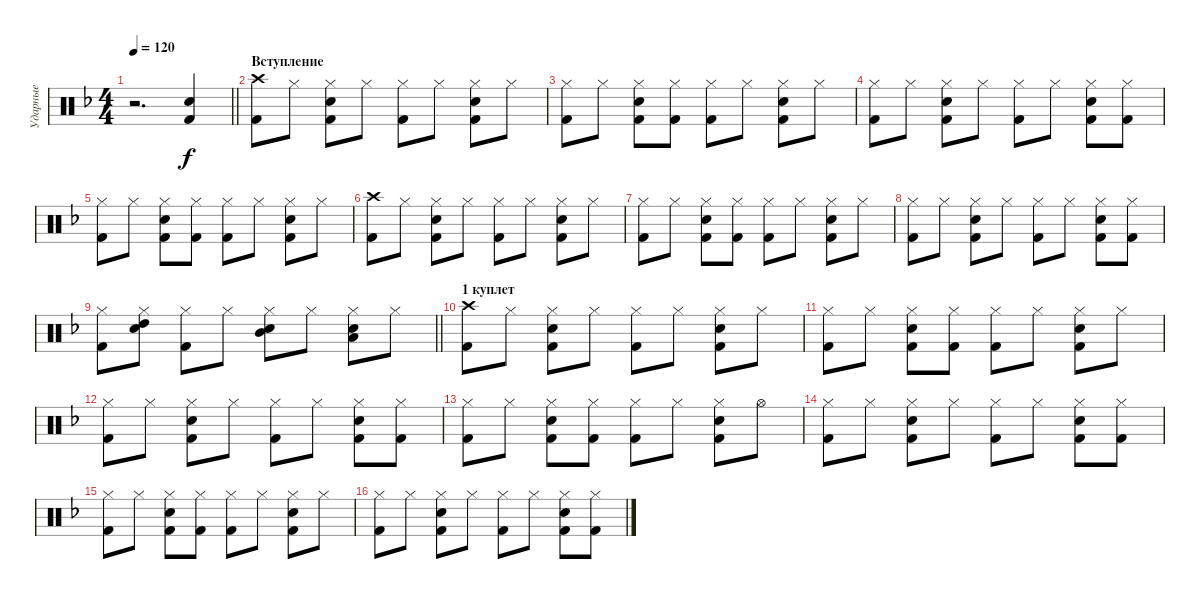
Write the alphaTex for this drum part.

\track ("Ударные" "Ударные") {instrument percussion}
\staff {score}
\articulation defaults
\ts (4 4)
\tempo 120
\clef neutral
\barLineRight lightlight
\ks f
r.2{d dy f} ("Kick (hit) 2" "Electric Snare (hit)").4 |
\section ("" "Вступление")
("Kick (hit) 2" "Crash high (hit)").8 "Hi-Hat (closed)".8 ("Kick (hit) 2" "Electric Snare (hit)" "Hi-Hat (closed)").8 "Hi-Hat (closed)".8 ("Kick (hit) 2" "Hi-Hat (closed)").8 "Hi-Hat (closed)".8 ("Kick (hit) 2" "Electric Snare (hit)" "Hi-Hat (closed)").8 "Hi-Hat (closed)".8 |
("Kick (hit) 2" "Hi-Hat (closed)").8 "Hi-Hat (closed)".8 ("Kick (hit) 2" "Electric Snare (hit)" "Hi-Hat (closed)").8 ("Kick (hit) 2" "Hi-Hat (closed)").8 ("Kick (hit) 2" "Hi-Hat (closed)").8 "Hi-Hat (closed)".8 ("Kick (hit) 2" "Electric Snare (hit)" "Hi-Hat (closed)").8 "Hi-Hat (closed)".8 |
("Kick (hit) 2" "Hi-Hat (closed)").8 "Hi-Hat (closed)".8 ("Kick (hit) 2" "Electric Snare (hit)" "Hi-Hat (closed)").8 "Hi-Hat (closed)".8 ("Kick (hit) 2" "Hi-Hat (closed)").8 "Hi-Hat (closed)".8 ("Kick (hit) 2" "Electric Snare (hit)" "Hi-Hat (closed)").8 ("Kick (hit) 2" "Hi-Hat (closed)").8 |
("Kick (hit) 2" "Hi-Hat (closed)").8 "Hi-Hat (closed)".8 ("Kick (hit) 2" "Electric Snare (hit)" "Hi-Hat (closed)").8 ("Kick (hit) 2" "Hi-Hat (closed)").8 ("Kick (hit) 2" "Hi-Hat (closed)").8 "Hi-Hat (closed)".8 ("Kick (hit) 2" "Electric Snare (hit)" "Hi-Hat (closed)").8 "Hi-Hat (closed)".8 |
("Kick (hit) 2" "Crash high (hit)").8 "Hi-Hat (closed)".8 ("Kick (hit) 2" "Electric Snare (hit)" "Hi-Hat (closed)").8 "Hi-Hat (closed)".8 ("Kick (hit) 2" "Hi-Hat (closed)").8 "Hi-Hat (closed)".8 ("Kick (hit) 2" "Electric Snare (hit)" "Hi-Hat (closed)").8 "Hi-Hat (closed)".8 |
("Kick (hit) 2" "Hi-Hat (closed)").8 "Hi-Hat (closed)".8 ("Kick (hit) 2" "Electric Snare (hit)" "Hi-Hat (closed)").8 ("Kick (hit) 2" "Hi-Hat (closed)").8 ("Kick (hit) 2" "Hi-Hat (closed)").8 "Hi-Hat (closed)".8 ("Kick (hit) 2" "Electric Snare (hit)" "Hi-Hat (closed)").8 "Hi-Hat (closed)".8 |
("Kick (hit) 2" "Hi-Hat (closed)").8 "Hi-Hat (closed)".8 ("Kick (hit) 2" "Electric Snare (hit)" "Hi-Hat (closed)").8 "Hi-Hat (closed)".8 ("Kick (hit) 2" "Hi-Hat (closed)").8 "Hi-Hat (closed)".8 ("Kick (hit) 2" "Electric Snare (hit)" "Hi-Hat (closed)").8 ("Kick (hit) 2" "Hi-Hat (closed)").8 |
\barLineRight lightlight
("Kick (hit) 2" "Hi-Hat (closed)").8 ("High Tom (hit)" "Hi-Hat (closed)" "Electric Snare (hit)").8 ("Kick (hit) 2" "Hi-Hat (closed)").8 "Hi-Hat (closed)".8 ("Mid Tom (hit)" "Electric Snare (hit)" "Hi-Hat (closed)").8 "Hi-Hat (closed)".8 ("Low Tom (hit)" "Electric Snare (hit)" "Hi-Hat (closed)").8 "Hi-Hat (closed)".8 |
\section ("" "1 куплет")
("Kick (hit) 2" "Crash high (hit)").8 "Hi-Hat (closed)".8 ("Kick (hit) 2" "Electric Snare (hit)" "Hi-Hat (closed)").8 "Hi-Hat (closed)".8 ("Kick (hit) 2" "Hi-Hat (closed)").8 "Hi-Hat (closed)".8 ("Kick (hit) 2" "Electric Snare (hit)" "Hi-Hat (closed)").8 "Hi-Hat (closed)".8 |
("Kick (hit) 2" "Hi-Hat (closed)").8 "Hi-Hat (closed)".8 ("Kick (hit) 2" "Electric Snare (hit)" "Hi-Hat (closed)").8 ("Kick (hit) 2" "Hi-Hat (closed)").8 ("Kick (hit) 2" "Hi-Hat (closed)").8 "Hi-Hat (closed)".8 ("Kick (hit) 2" "Electric Snare (hit)" "Hi-Hat (closed)").8 "Hi-Hat (closed)".8 |
("Kick (hit) 2" "Hi-Hat (closed)").8 "Hi-Hat (closed)".8 ("Kick (hit) 2" "Electric Snare (hit)" "Hi-Hat (closed)").8 "Hi-Hat (closed)".8 ("Kick (hit) 2" "Hi-Hat (closed)").8 "Hi-Hat (closed)".8 ("Kick (hit) 2" "Electric Snare (hit)" "Hi-Hat (closed)").8 ("Kick (hit) 2" "Hi-Hat (closed)").8 |
("Kick (hit) 2" "Hi-Hat (closed)").8 "Hi-Hat (closed)".8 ("Kick (hit) 2" "Electric Snare (hit)" "Hi-Hat (closed)").8 ("Kick (hit) 2" "Hi-Hat (closed)").8 ("Kick (hit) 2" "Hi-Hat (closed)").8 "Hi-Hat (closed)".8 ("Kick (hit) 2" "Electric Snare (hit)" "Hi-Hat (closed)").8 "Hi-Hat (open)".8 |
("Kick (hit) 2" "Hi-Hat (closed)").8 "Hi-Hat (closed)".8 ("Kick (hit) 2" "Electric Snare (hit)" "Hi-Hat (closed)").8 "Hi-Hat (closed)".8 ("Kick (hit) 2" "Hi-Hat (closed)").8 "Hi-Hat (closed)".8 ("Kick (hit) 2" "Electric Snare (hit)" "Hi-Hat (closed)").8 ("Kick (hit) 2" "Hi-Hat (closed)").8 |
("Kick (hit) 2" "Hi-Hat (closed)").8 "Hi-Hat (closed)".8 ("Kick (hit) 2" "Electric Snare (hit)" "Hi-Hat (closed)").8 ("Kick (hit) 2" "Hi-Hat (closed)").8 ("Kick (hit) 2" "Hi-Hat (closed)").8 "Hi-Hat (closed)".8 ("Kick (hit) 2" "Electric Snare (hit)" "Hi-Hat (closed)").8 "Hi-Hat (closed)".8 |
("Kick (hit) 2" "Hi-Hat (closed)").8 "Hi-Hat (closed)".8 ("Kick (hit) 2" "Electric Snare (hit)" "Hi-Hat (closed)").8 "Hi-Hat (closed)".8 ("Kick (hit) 2" "Hi-Hat (closed)").8 "Hi-Hat (closed)".8 ("Kick (hit) 2" "Electric Snare (hit)" "Hi-Hat (closed)").8 ("Kick (hit) 2" "Hi-Hat (closed)").8
